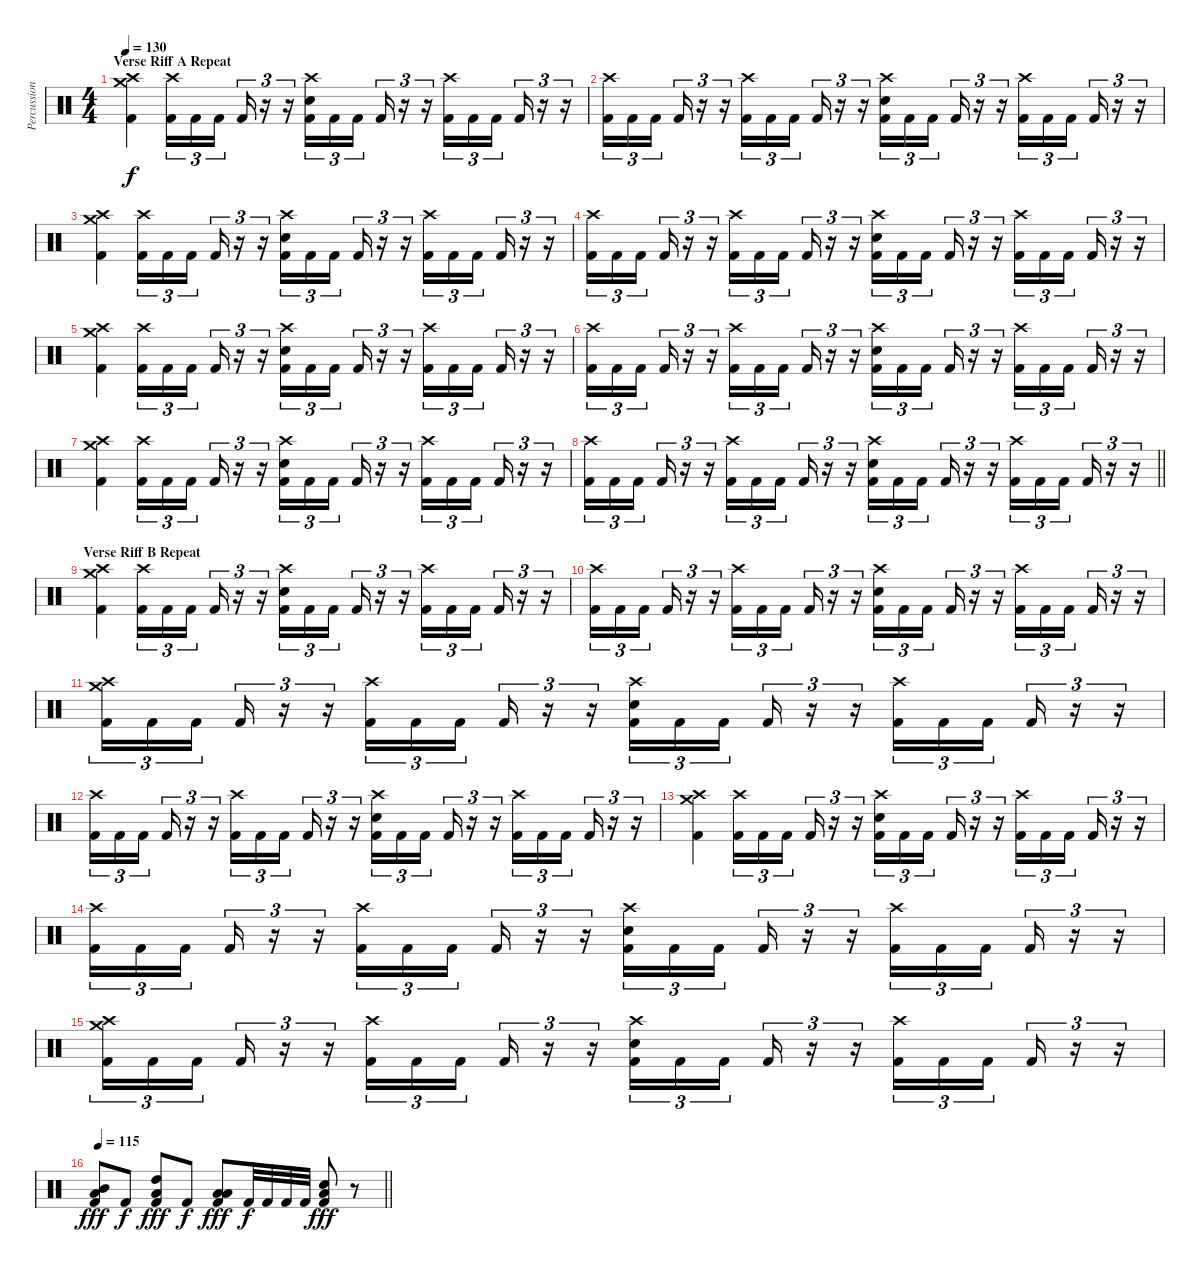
\track ("Percussion" "Percussion") {instrument percussion}
\staff {score}
\articulation defaults
\ts (4 4)
\section ("" "Verse Riff A Repeat")
\tempo 130
\clef neutral
\ks c
("Crash high (hit)" "Crash medium (hit)" "Kick (hit) 2").4{dy f} ("Crash high (hit)" "Kick (hit) 2").16{tu (3 2)} "Kick (hit) 2".16{tu (3 2)} "Kick (hit) 2".16{tu (3 2) beam splitsecondary} "Kick (hit) 2".16{tu (3 2)} r.16{tu (3 2)} r.16{tu (3 2)} ("Crash high (hit)" "Electric Snare (hit)" "Kick (hit) 2").16{tu (3 2)} "Kick (hit) 2".16{tu (3 2)} "Kick (hit) 2".16{tu (3 2) beam splitsecondary} "Kick (hit) 2".16{tu (3 2)} r.16{tu (3 2)} r.16{tu (3 2)} ("Crash high (hit)" "Kick (hit) 2").16{tu (3 2)} "Kick (hit) 2".16{tu (3 2)} "Kick (hit) 2".16{tu (3 2) beam splitsecondary} "Kick (hit) 2".16{tu (3 2)} r.16{tu (3 2)} r.16{tu (3 2)} |
("Crash high (hit)" "Kick (hit) 2").16{tu (3 2)} "Kick (hit) 2".16{tu (3 2)} "Kick (hit) 2".16{tu (3 2) beam splitsecondary} "Kick (hit) 2".16{tu (3 2)} r.16{tu (3 2)} r.16{tu (3 2)} ("Crash high (hit)" "Kick (hit) 2").16{tu (3 2)} "Kick (hit) 2".16{tu (3 2)} "Kick (hit) 2".16{tu (3 2) beam splitsecondary} "Kick (hit) 2".16{tu (3 2)} r.16{tu (3 2)} r.16{tu (3 2)} ("Crash high (hit)" "Electric Snare (hit)" "Kick (hit) 2").16{tu (3 2)} "Kick (hit) 2".16{tu (3 2)} "Kick (hit) 2".16{tu (3 2) beam splitsecondary} "Kick (hit) 2".16{tu (3 2)} r.16{tu (3 2)} r.16{tu (3 2)} ("Crash high (hit)" "Kick (hit) 2").16{tu (3 2)} "Kick (hit) 2".16{tu (3 2)} "Kick (hit) 2".16{tu (3 2) beam splitsecondary} "Kick (hit) 2".16{tu (3 2)} r.16{tu (3 2)} r.16{tu (3 2)} |
("Crash high (hit)" "Crash medium (hit)" "Kick (hit) 2").4 ("Crash high (hit)" "Kick (hit) 2").16{tu (3 2)} "Kick (hit) 2".16{tu (3 2)} "Kick (hit) 2".16{tu (3 2) beam splitsecondary} "Kick (hit) 2".16{tu (3 2)} r.16{tu (3 2)} r.16{tu (3 2)} ("Crash high (hit)" "Electric Snare (hit)" "Kick (hit) 2").16{tu (3 2)} "Kick (hit) 2".16{tu (3 2)} "Kick (hit) 2".16{tu (3 2) beam splitsecondary} "Kick (hit) 2".16{tu (3 2)} r.16{tu (3 2)} r.16{tu (3 2)} ("Crash high (hit)" "Kick (hit) 2").16{tu (3 2)} "Kick (hit) 2".16{tu (3 2)} "Kick (hit) 2".16{tu (3 2) beam splitsecondary} "Kick (hit) 2".16{tu (3 2)} r.16{tu (3 2)} r.16{tu (3 2)} |
("Crash high (hit)" "Kick (hit) 2").16{tu (3 2)} "Kick (hit) 2".16{tu (3 2)} "Kick (hit) 2".16{tu (3 2) beam splitsecondary} "Kick (hit) 2".16{tu (3 2)} r.16{tu (3 2)} r.16{tu (3 2)} ("Crash high (hit)" "Kick (hit) 2").16{tu (3 2)} "Kick (hit) 2".16{tu (3 2)} "Kick (hit) 2".16{tu (3 2) beam splitsecondary} "Kick (hit) 2".16{tu (3 2)} r.16{tu (3 2)} r.16{tu (3 2)} ("Crash high (hit)" "Electric Snare (hit)" "Kick (hit) 2").16{tu (3 2)} "Kick (hit) 2".16{tu (3 2)} "Kick (hit) 2".16{tu (3 2) beam splitsecondary} "Kick (hit) 2".16{tu (3 2)} r.16{tu (3 2)} r.16{tu (3 2)} ("Crash high (hit)" "Kick (hit) 2").16{tu (3 2)} "Kick (hit) 2".16{tu (3 2)} "Kick (hit) 2".16{tu (3 2) beam splitsecondary} "Kick (hit) 2".16{tu (3 2)} r.16{tu (3 2)} r.16{tu (3 2)} |
("Crash high (hit)" "Crash medium (hit)" "Kick (hit) 2").4 ("Crash high (hit)" "Kick (hit) 2").16{tu (3 2)} "Kick (hit) 2".16{tu (3 2)} "Kick (hit) 2".16{tu (3 2) beam splitsecondary} "Kick (hit) 2".16{tu (3 2)} r.16{tu (3 2)} r.16{tu (3 2)} ("Crash high (hit)" "Electric Snare (hit)" "Kick (hit) 2").16{tu (3 2)} "Kick (hit) 2".16{tu (3 2)} "Kick (hit) 2".16{tu (3 2) beam splitsecondary} "Kick (hit) 2".16{tu (3 2)} r.16{tu (3 2)} r.16{tu (3 2)} ("Crash high (hit)" "Kick (hit) 2").16{tu (3 2)} "Kick (hit) 2".16{tu (3 2)} "Kick (hit) 2".16{tu (3 2) beam splitsecondary} "Kick (hit) 2".16{tu (3 2)} r.16{tu (3 2)} r.16{tu (3 2)} |
("Crash high (hit)" "Kick (hit) 2").16{tu (3 2)} "Kick (hit) 2".16{tu (3 2)} "Kick (hit) 2".16{tu (3 2) beam splitsecondary} "Kick (hit) 2".16{tu (3 2)} r.16{tu (3 2)} r.16{tu (3 2)} ("Crash high (hit)" "Kick (hit) 2").16{tu (3 2)} "Kick (hit) 2".16{tu (3 2)} "Kick (hit) 2".16{tu (3 2) beam splitsecondary} "Kick (hit) 2".16{tu (3 2)} r.16{tu (3 2)} r.16{tu (3 2)} ("Crash high (hit)" "Electric Snare (hit)" "Kick (hit) 2").16{tu (3 2)} "Kick (hit) 2".16{tu (3 2)} "Kick (hit) 2".16{tu (3 2) beam splitsecondary} "Kick (hit) 2".16{tu (3 2)} r.16{tu (3 2)} r.16{tu (3 2)} ("Crash high (hit)" "Kick (hit) 2").16{tu (3 2)} "Kick (hit) 2".16{tu (3 2)} "Kick (hit) 2".16{tu (3 2) beam splitsecondary} "Kick (hit) 2".16{tu (3 2)} r.16{tu (3 2)} r.16{tu (3 2)} |
("Crash high (hit)" "Crash medium (hit)" "Kick (hit) 2").4 ("Crash high (hit)" "Kick (hit) 2").16{tu (3 2)} "Kick (hit) 2".16{tu (3 2)} "Kick (hit) 2".16{tu (3 2) beam splitsecondary} "Kick (hit) 2".16{tu (3 2)} r.16{tu (3 2)} r.16{tu (3 2)} ("Crash high (hit)" "Electric Snare (hit)" "Kick (hit) 2").16{tu (3 2)} "Kick (hit) 2".16{tu (3 2)} "Kick (hit) 2".16{tu (3 2) beam splitsecondary} "Kick (hit) 2".16{tu (3 2)} r.16{tu (3 2)} r.16{tu (3 2)} ("Crash high (hit)" "Kick (hit) 2").16{tu (3 2)} "Kick (hit) 2".16{tu (3 2)} "Kick (hit) 2".16{tu (3 2) beam splitsecondary} "Kick (hit) 2".16{tu (3 2)} r.16{tu (3 2)} r.16{tu (3 2)} |
\barLineRight lightlight
("Crash high (hit)" "Kick (hit) 2").16{tu (3 2)} "Kick (hit) 2".16{tu (3 2)} "Kick (hit) 2".16{tu (3 2) beam splitsecondary} "Kick (hit) 2".16{tu (3 2)} r.16{tu (3 2)} r.16{tu (3 2)} ("Crash high (hit)" "Kick (hit) 2").16{tu (3 2)} "Kick (hit) 2".16{tu (3 2)} "Kick (hit) 2".16{tu (3 2) beam splitsecondary} "Kick (hit) 2".16{tu (3 2)} r.16{tu (3 2)} r.16{tu (3 2)} ("Crash high (hit)" "Electric Snare (hit)" "Kick (hit) 2").16{tu (3 2)} "Kick (hit) 2".16{tu (3 2)} "Kick (hit) 2".16{tu (3 2) beam splitsecondary} "Kick (hit) 2".16{tu (3 2)} r.16{tu (3 2)} r.16{tu (3 2)} ("Crash high (hit)" "Kick (hit) 2").16{tu (3 2)} "Kick (hit) 2".16{tu (3 2)} "Kick (hit) 2".16{tu (3 2) beam splitsecondary} "Kick (hit) 2".16{tu (3 2)} r.16{tu (3 2)} r.16{tu (3 2)} |
\section ("" "Verse Riff B Repeat")
("Crash high (hit)" "Crash medium (hit)" "Kick (hit) 2").4 ("Crash high (hit)" "Kick (hit) 2").16{tu (3 2)} "Kick (hit) 2".16{tu (3 2)} "Kick (hit) 2".16{tu (3 2) beam splitsecondary} "Kick (hit) 2".16{tu (3 2)} r.16{tu (3 2)} r.16{tu (3 2)} ("Crash high (hit)" "Electric Snare (hit)" "Kick (hit) 2").16{tu (3 2)} "Kick (hit) 2".16{tu (3 2)} "Kick (hit) 2".16{tu (3 2) beam splitsecondary} "Kick (hit) 2".16{tu (3 2)} r.16{tu (3 2)} r.16{tu (3 2)} ("Crash high (hit)" "Kick (hit) 2").16{tu (3 2)} "Kick (hit) 2".16{tu (3 2)} "Kick (hit) 2".16{tu (3 2) beam splitsecondary} "Kick (hit) 2".16{tu (3 2)} r.16{tu (3 2)} r.16{tu (3 2)} |
("Crash high (hit)" "Kick (hit) 2").16{tu (3 2)} "Kick (hit) 2".16{tu (3 2)} "Kick (hit) 2".16{tu (3 2) beam splitsecondary} "Kick (hit) 2".16{tu (3 2)} r.16{tu (3 2)} r.16{tu (3 2)} ("Crash high (hit)" "Kick (hit) 2").16{tu (3 2)} "Kick (hit) 2".16{tu (3 2)} "Kick (hit) 2".16{tu (3 2) beam splitsecondary} "Kick (hit) 2".16{tu (3 2)} r.16{tu (3 2)} r.16{tu (3 2)} ("Crash high (hit)" "Electric Snare (hit)" "Kick (hit) 2").16{tu (3 2)} "Kick (hit) 2".16{tu (3 2)} "Kick (hit) 2".16{tu (3 2) beam splitsecondary} "Kick (hit) 2".16{tu (3 2)} r.16{tu (3 2)} r.16{tu (3 2)} ("Crash high (hit)" "Kick (hit) 2").16{tu (3 2)} "Kick (hit) 2".16{tu (3 2)} "Kick (hit) 2".16{tu (3 2) beam splitsecondary} "Kick (hit) 2".16{tu (3 2)} r.16{tu (3 2)} r.16{tu (3 2)} |
("Crash high (hit)" "Crash medium (hit)" "Kick (hit) 2").16{tu (3 2)} "Kick (hit) 2".16{tu (3 2)} "Kick (hit) 2".16{tu (3 2) beam splitsecondary} "Kick (hit) 2".16{tu (3 2)} r.16{tu (3 2)} r.16{tu (3 2)} ("Crash high (hit)" "Kick (hit) 2").16{tu (3 2)} "Kick (hit) 2".16{tu (3 2)} "Kick (hit) 2".16{tu (3 2) beam splitsecondary} "Kick (hit) 2".16{tu (3 2)} r.16{tu (3 2)} r.16{tu (3 2)} ("Crash high (hit)" "Electric Snare (hit)" "Kick (hit) 2").16{tu (3 2)} "Kick (hit) 2".16{tu (3 2)} "Kick (hit) 2".16{tu (3 2) beam splitsecondary} "Kick (hit) 2".16{tu (3 2)} r.16{tu (3 2)} r.16{tu (3 2)} ("Crash high (hit)" "Kick (hit) 2").16{tu (3 2)} "Kick (hit) 2".16{tu (3 2)} "Kick (hit) 2".16{tu (3 2) beam splitsecondary} "Kick (hit) 2".16{tu (3 2)} r.16{tu (3 2)} r.16{tu (3 2)} |
("Crash high (hit)" "Kick (hit) 2").16{tu (3 2)} "Kick (hit) 2".16{tu (3 2)} "Kick (hit) 2".16{tu (3 2) beam splitsecondary} "Kick (hit) 2".16{tu (3 2)} r.16{tu (3 2)} r.16{tu (3 2)} ("Crash high (hit)" "Kick (hit) 2").16{tu (3 2)} "Kick (hit) 2".16{tu (3 2)} "Kick (hit) 2".16{tu (3 2) beam splitsecondary} "Kick (hit) 2".16{tu (3 2)} r.16{tu (3 2)} r.16{tu (3 2)} ("Crash high (hit)" "Electric Snare (hit)" "Kick (hit) 2").16{tu (3 2)} "Kick (hit) 2".16{tu (3 2)} "Kick (hit) 2".16{tu (3 2) beam splitsecondary} "Kick (hit) 2".16{tu (3 2)} r.16{tu (3 2)} r.16{tu (3 2)} ("Crash high (hit)" "Kick (hit) 2").16{tu (3 2)} "Kick (hit) 2".16{tu (3 2)} "Kick (hit) 2".16{tu (3 2) beam splitsecondary} "Kick (hit) 2".16{tu (3 2)} r.16{tu (3 2)} r.16{tu (3 2)} |
("Crash high (hit)" "Crash medium (hit)" "Kick (hit) 2").4 ("Crash high (hit)" "Kick (hit) 2").16{tu (3 2)} "Kick (hit) 2".16{tu (3 2)} "Kick (hit) 2".16{tu (3 2) beam splitsecondary} "Kick (hit) 2".16{tu (3 2)} r.16{tu (3 2)} r.16{tu (3 2)} ("Crash high (hit)" "Electric Snare (hit)" "Kick (hit) 2").16{tu (3 2)} "Kick (hit) 2".16{tu (3 2)} "Kick (hit) 2".16{tu (3 2) beam splitsecondary} "Kick (hit) 2".16{tu (3 2)} r.16{tu (3 2)} r.16{tu (3 2)} ("Crash high (hit)" "Kick (hit) 2").16{tu (3 2)} "Kick (hit) 2".16{tu (3 2)} "Kick (hit) 2".16{tu (3 2) beam splitsecondary} "Kick (hit) 2".16{tu (3 2)} r.16{tu (3 2)} r.16{tu (3 2)} |
("Crash high (hit)" "Kick (hit) 2").16{tu (3 2)} "Kick (hit) 2".16{tu (3 2)} "Kick (hit) 2".16{tu (3 2) beam splitsecondary} "Kick (hit) 2".16{tu (3 2)} r.16{tu (3 2)} r.16{tu (3 2)} ("Crash high (hit)" "Kick (hit) 2").16{tu (3 2)} "Kick (hit) 2".16{tu (3 2)} "Kick (hit) 2".16{tu (3 2) beam splitsecondary} "Kick (hit) 2".16{tu (3 2)} r.16{tu (3 2)} r.16{tu (3 2)} ("Crash high (hit)" "Electric Snare (hit)" "Kick (hit) 2").16{tu (3 2)} "Kick (hit) 2".16{tu (3 2)} "Kick (hit) 2".16{tu (3 2) beam splitsecondary} "Kick (hit) 2".16{tu (3 2)} r.16{tu (3 2)} r.16{tu (3 2)} ("Crash high (hit)" "Kick (hit) 2").16{tu (3 2)} "Kick (hit) 2".16{tu (3 2)} "Kick (hit) 2".16{tu (3 2) beam splitsecondary} "Kick (hit) 2".16{tu (3 2)} r.16{tu (3 2)} r.16{tu (3 2)} |
("Crash high (hit)" "Crash medium (hit)" "Kick (hit) 2").16{tu (3 2)} "Kick (hit) 2".16{tu (3 2)} "Kick (hit) 2".16{tu (3 2) beam splitsecondary} "Kick (hit) 2".16{tu (3 2)} r.16{tu (3 2)} r.16{tu (3 2)} ("Crash high (hit)" "Kick (hit) 2").16{tu (3 2)} "Kick (hit) 2".16{tu (3 2)} "Kick (hit) 2".16{tu (3 2) beam splitsecondary} "Kick (hit) 2".16{tu (3 2)} r.16{tu (3 2)} r.16{tu (3 2)} ("Crash high (hit)" "Electric Snare (hit)" "Kick (hit) 2").16{tu (3 2)} "Kick (hit) 2".16{tu (3 2)} "Kick (hit) 2".16{tu (3 2) beam splitsecondary} "Kick (hit) 2".16{tu (3 2)} r.16{tu (3 2)} r.16{tu (3 2)} ("Crash high (hit)" "Kick (hit) 2").16{tu (3 2)} "Kick (hit) 2".16{tu (3 2)} "Kick (hit) 2".16{tu (3 2) beam splitsecondary} "Kick (hit) 2".16{tu (3 2)} r.16{tu (3 2)} r.16{tu (3 2)} |
\tempo 115
\barLineRight lightlight
("Mid Tom (hit)" "Low Floor Tom (hit)" "Kick (hit) 2").8{dy fff} "Kick (hit) 2".8{dy f} ("High Tom (hit)" "Low Floor Tom (hit)" "Kick (hit) 2").8{dy fff} "Kick (hit) 2".8{dy f} ("Low Tom (hit)" "Low Floor Tom (hit)" "Kick (hit) 2").8{dy fff} "Kick (hit) 2".32{dy f} "Kick (hit) 2".32 "Kick (hit) 2".32 "Kick (hit) 2".32 ("Electric Snare (hit)" "Low Floor Tom (hit)" "Kick (hit) 2").8{dy fff} r.8
